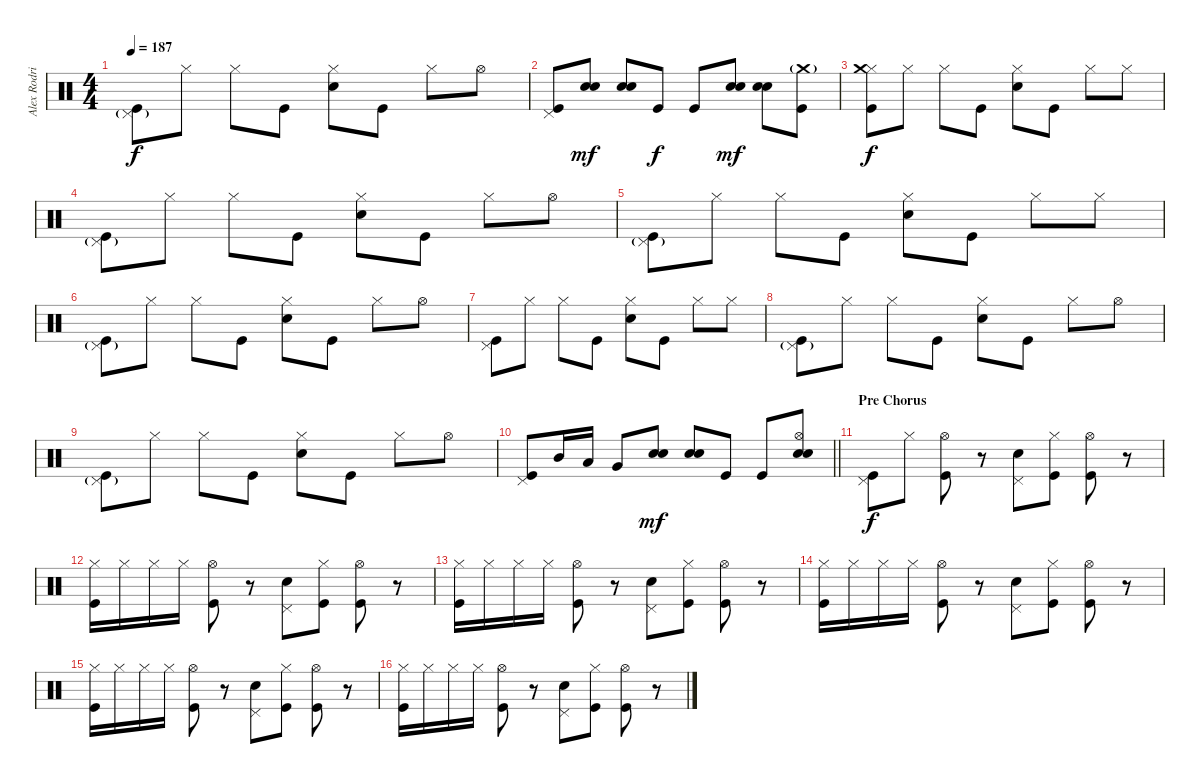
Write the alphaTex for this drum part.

\track ("Alex Rodriguez" "Alex Rodri") {instrument percussion}
\staff {score}
\articulation defaults
\ts (4 4)
\tempo 187
\clef neutral
\ks c
("Pedal Hi-Hat (hit)"{g} "Kick (hit)").8{dy f} "Hi-Hat (closed)".8 "Hi-Hat (closed)".8 "Kick (hit)".8 ("Hi-Hat (closed)" "Electric Snare (hit)").8 "Kick (hit)".8 "Hi-Hat (closed)".8 "Hi-Hat (open)".8 |
("Pedal Hi-Hat (hit)" "Kick (hit)").8 ("Snare (hit) 2" "Electric Snare (hit)").8{dy mf} ("Snare (hit) 2" "Electric Snare (hit)").8 "Kick (hit)".8{dy f} "Kick (hit)".8 ("Snare (hit) 2" "Electric Snare (hit)").8{dy mf} ("Snare (hit) 2" "Electric Snare (hit)").8 ("Crash medium (hit)"{g} "Kick (hit)").8 |
("Hi-Hat (closed)" "Crash medium (hit)" "Kick (hit)").8{dy f} "Hi-Hat (closed)".8 "Hi-Hat (closed)".8 "Kick (hit)".8 ("Hi-Hat (closed)" "Electric Snare (hit)").8 "Kick (hit)".8 "Hi-Hat (closed)".8 "Hi-Hat (closed)".8 |
("Pedal Hi-Hat (hit)"{g} "Kick (hit)").8 "Hi-Hat (closed)".8 "Hi-Hat (closed)".8 "Kick (hit)".8 ("Hi-Hat (closed)" "Electric Snare (hit)").8 "Kick (hit)".8 "Hi-Hat (closed)".8 "Hi-Hat (open)".8 |
("Pedal Hi-Hat (hit)"{g} "Kick (hit)").8 "Hi-Hat (closed)".8 "Hi-Hat (closed)".8 "Kick (hit)".8 ("Hi-Hat (closed)" "Electric Snare (hit)").8 "Kick (hit)".8 "Hi-Hat (closed)".8 "Hi-Hat (closed)".8 |
("Pedal Hi-Hat (hit)"{g} "Kick (hit)").8 "Hi-Hat (closed)".8 "Hi-Hat (closed)".8 "Kick (hit)".8 ("Hi-Hat (closed)" "Electric Snare (hit)").8 "Kick (hit)".8 "Hi-Hat (closed)".8 "Hi-Hat (open)".8 |
("Pedal Hi-Hat (hit)" "Kick (hit)").8 "Hi-Hat (closed)".8 "Hi-Hat (closed)".8 "Kick (hit)".8 ("Hi-Hat (closed)" "Electric Snare (hit)").8 "Kick (hit)".8 "Hi-Hat (closed)".8 "Hi-Hat (closed)".8 |
("Pedal Hi-Hat (hit)"{g} "Kick (hit)").8 "Hi-Hat (closed)".8 "Hi-Hat (closed)".8 "Kick (hit)".8 ("Hi-Hat (closed)" "Electric Snare (hit)").8 "Kick (hit)".8 "Hi-Hat (closed)".8 "Hi-Hat (open)".8 |
("Pedal Hi-Hat (hit)"{g} "Kick (hit)").8 "Hi-Hat (closed)".8 "Hi-Hat (closed)".8 "Kick (hit)".8 ("Hi-Hat (closed)" "Electric Snare (hit)").8 "Kick (hit)".8 "Hi-Hat (closed)".8 "Hi-Hat (open)".8 |
\barLineRight lightlight
("Pedal Hi-Hat (hit)" "Kick (hit)").8 "Mid Tom (hit)".16 "Low Tom (hit)".16 "Very Low Tom (hit)".8 ("Snare (hit) 2" "Electric Snare (hit)").8{dy mf} ("Snare (hit) 2" "Electric Snare (hit)").8 "Kick (hit)".8 "Kick (hit)".8 ("Hi-Hat (open)" "Snare (hit) 2" "Electric Snare (hit)").8 |
\section ("" "Pre Chorus")
("Pedal Hi-Hat (hit)" "Kick (hit)").8{dy f} "Hi-Hat (closed)".8 ("Hi-Hat (open)" "Kick (hit)").8 r.8 ("Pedal Hi-Hat (hit)" "Electric Snare (hit)").8 ("Hi-Hat (closed)" "Kick (hit)").8 ("Hi-Hat (open)" "Kick (hit)").8 r.8 |
("Hi-Hat (closed)" "Kick (hit)").16 "Hi-Hat (closed)".16 "Hi-Hat (closed)".16 "Hi-Hat (closed)".16 ("Hi-Hat (open)" "Kick (hit)").8 r.8 ("Pedal Hi-Hat (hit)" "Electric Snare (hit)").8 ("Hi-Hat (closed)" "Kick (hit)").8 ("Hi-Hat (open)" "Kick (hit)").8 r.8 |
("Hi-Hat (closed)" "Kick (hit)").16 "Hi-Hat (closed)".16 "Hi-Hat (closed)".16 "Hi-Hat (closed)".16 ("Hi-Hat (open)" "Kick (hit)").8 r.8 ("Pedal Hi-Hat (hit)" "Electric Snare (hit)").8 ("Hi-Hat (closed)" "Kick (hit)").8 ("Hi-Hat (open)" "Kick (hit)").8 r.8 |
("Hi-Hat (closed)" "Kick (hit)").16 "Hi-Hat (closed)".16 "Hi-Hat (closed)".16 "Hi-Hat (closed)".16 ("Hi-Hat (open)" "Kick (hit)").8 r.8 ("Pedal Hi-Hat (hit)" "Electric Snare (hit)").8 ("Hi-Hat (closed)" "Kick (hit)").8 ("Hi-Hat (open)" "Kick (hit)").8 r.8 |
("Hi-Hat (closed)" "Kick (hit)").16 "Hi-Hat (closed)".16 "Hi-Hat (closed)".16 "Hi-Hat (closed)".16 ("Hi-Hat (open)" "Kick (hit)").8 r.8 ("Pedal Hi-Hat (hit)" "Electric Snare (hit)").8 ("Hi-Hat (closed)" "Kick (hit)").8 ("Hi-Hat (open)" "Kick (hit)").8 r.8 |
("Hi-Hat (closed)" "Kick (hit)").16 "Hi-Hat (closed)".16 "Hi-Hat (closed)".16 "Hi-Hat (closed)".16 ("Hi-Hat (open)" "Kick (hit)").8 r.8 ("Pedal Hi-Hat (hit)" "Electric Snare (hit)").8 ("Hi-Hat (closed)" "Kick (hit)").8 ("Hi-Hat (open)" "Kick (hit)").8 r.8
